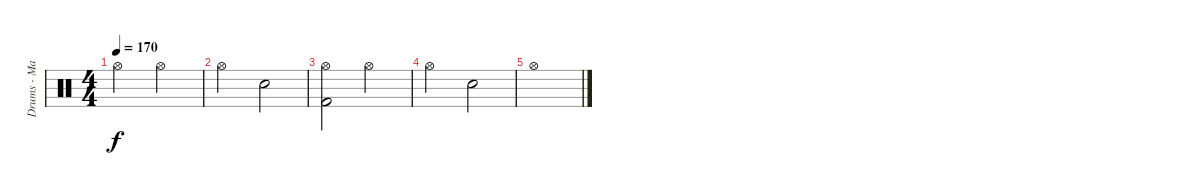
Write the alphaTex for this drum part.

\track ("Drums - Mattias Grahn" "Drums - Ma") {instrument percussion}
\staff {score}
\articulation defaults
\ts (4 4)
\tempo 170
\clef neutral
\ks c "Hi-Hat (open)".2{dy f} "Hi-Hat (open)".2
|
"Hi-Hat (open)".2 "Snare (hit) 2".2 |
("Hi-Hat (open)" "Kick (hit) 2").2 "Hi-Hat (open)".2 |
"Hi-Hat (open)".2 "Snare (hit) 2".2 |
"Hi-Hat (open)".1
